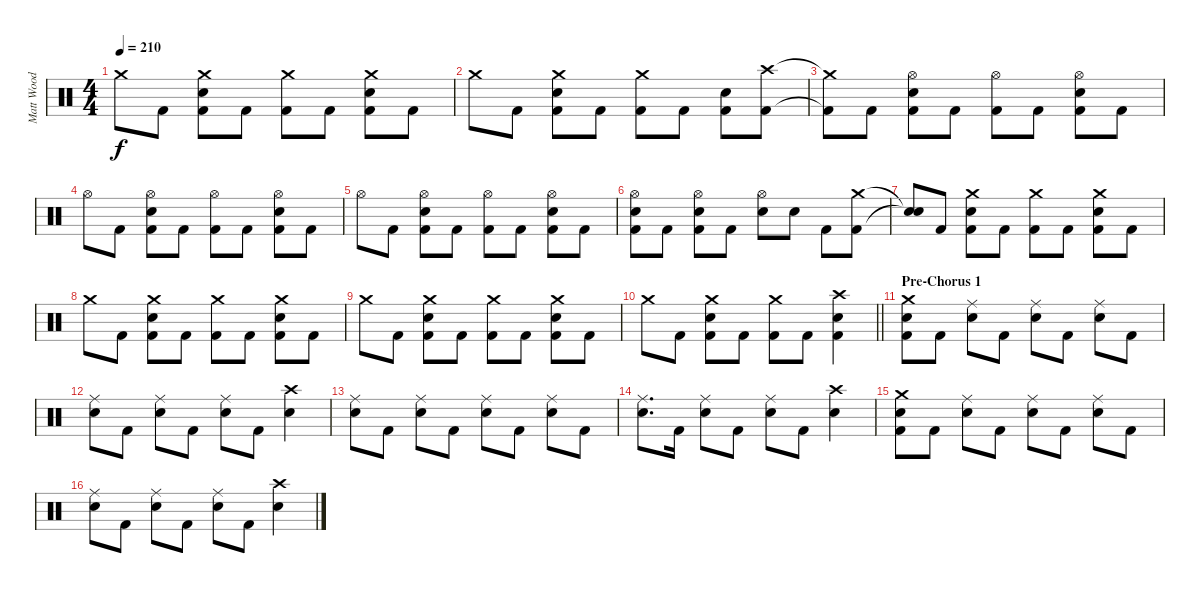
\track ("Matt Wood" "Matt Wood") {instrument percussion}
\staff {score}
\articulation defaults
\ts (4 4)
\tempo 210
\clef neutral
\ks c "Crash medium (hit)".8{dy f} "Kick (hit) 2".8
("Crash medium (hit)" "Snare (hit) 2" "Kick (hit) 2").8 "Kick (hit) 2".8 ("Crash medium (hit)" "Kick (hit) 2").8 "Kick (hit) 2".8 ("Crash medium (hit)" "Snare (hit) 2" "Kick (hit) 2").8 "Kick (hit) 2".8 |
"Crash medium (hit)".8 "Kick (hit) 2".8 ("Crash medium (hit)" "Snare (hit) 2" "Kick (hit) 2").8 "Kick (hit) 2".8 ("Crash medium (hit)" "Kick (hit) 2").8 "Kick (hit) 2".8 ("Snare (hit) 2" "Kick (hit) 2").8 ("Crash high (hit)" "Kick (hit) 2").8 |
("Crash medium (hit)"{t} "Kick (hit) 2"{t}).8 "Kick (hit) 2".8 ("Hi-Hat (open)" "Snare (hit) 2" "Kick (hit) 2").8 "Kick (hit) 2".8 ("Hi-Hat (open)" "Kick (hit) 2").8 "Kick (hit) 2".8 ("Hi-Hat (open)" "Snare (hit) 2" "Kick (hit) 2").8 "Kick (hit) 2".8 |
"Hi-Hat (open)".8 "Kick (hit) 2".8 ("Hi-Hat (open)" "Snare (hit) 2" "Kick (hit) 2").8 "Kick (hit) 2".8 ("Hi-Hat (open)" "Kick (hit) 2").8 "Kick (hit) 2".8 ("Hi-Hat (open)" "Snare (hit) 2" "Kick (hit) 2").8 "Kick (hit) 2".8 |
"Hi-Hat (open)".8 "Kick (hit) 2".8 ("Hi-Hat (open)" "Snare (hit) 2" "Kick (hit) 2").8 "Kick (hit) 2".8 ("Hi-Hat (open)" "Kick (hit) 2").8 "Kick (hit) 2".8 ("Hi-Hat (open)" "Snare (hit) 2" "Kick (hit) 2").8 "Kick (hit) 2".8 |
("Hi-Hat (open)" "Snare (hit) 2" "Kick (hit) 2").8 "Kick (hit) 2".8 ("Hi-Hat (open)" "Snare (hit) 2" "Kick (hit) 2").8 "Kick (hit) 2".8 ("Hi-Hat (open)" "Snare (hit) 2").8 "Snare (hit) 2".8 "Kick (hit) 2".8 ("Crash medium (hit)" "Kick (hit) 2").8 |
("Snare (hit)"{t} "Snare (hit)"{t}).8 "Kick (hit) 2".8 ("Crash medium (hit)" "Snare (hit) 2" "Kick (hit) 2").8 "Kick (hit) 2".8 ("Crash medium (hit)" "Kick (hit) 2").8 "Kick (hit) 2".8 ("Crash medium (hit)" "Snare (hit) 2" "Kick (hit) 2").8 "Kick (hit) 2".8 |
"Crash medium (hit)".8 "Kick (hit) 2".8 ("Crash medium (hit)" "Snare (hit) 2" "Kick (hit) 2").8 "Kick (hit) 2".8 ("Crash medium (hit)" "Kick (hit) 2").8 "Kick (hit) 2".8 ("Crash medium (hit)" "Snare (hit) 2" "Kick (hit) 2").8 "Kick (hit) 2".8 |
"Crash medium (hit)".8 "Kick (hit) 2".8 ("Crash medium (hit)" "Snare (hit) 2" "Kick (hit) 2").8 "Kick (hit) 2".8 ("Crash medium (hit)" "Kick (hit) 2").8 "Kick (hit) 2".8 ("Crash medium (hit)" "Snare (hit) 2" "Kick (hit) 2").8 "Kick (hit) 2".8 |
\barLineRight lightlight "Crash medium (hit)".8 "Kick (hit) 2".8
("Crash medium (hit)" "Snare (hit) 2" "Kick (hit) 2").8 "Kick (hit) 2".8 ("Crash medium (hit)" "Kick (hit) 2").8 "Kick (hit) 2".8 ("Crash high (hit)" "Snare (hit) 2" "Kick (hit) 2").4 |
\section ("" "Pre-Chorus 1")
("Crash medium (hit)" "Snare (hit) 2" "Kick (hit) 2").8 "Kick (hit) 2".8 ("Ride (middle)" "Snare (hit) 2").8 "Kick (hit) 2".8 ("Ride (middle)" "Snare (hit) 2").8 "Kick (hit) 2".8 ("Ride (middle)" "Snare (hit) 2").8 "Kick (hit) 2".8 |
("Ride (middle)" "Snare (hit) 2").8 "Kick (hit) 2".8 ("Ride (middle)" "Snare (hit) 2").8 "Kick (hit) 2".8 ("Ride (middle)" "Snare (hit) 2").8 "Kick (hit) 2".8 ("Crash high (hit)" "Snare (hit) 2").4 |
("Ride (middle)" "Snare (hit) 2").8 "Kick (hit) 2".8 ("Ride (middle)" "Snare (hit) 2").8 "Kick (hit) 2".8 ("Ride (middle)" "Snare (hit) 2").8 "Kick (hit) 2".8 ("Ride (middle)" "Snare (hit) 2").8 "Kick (hit) 2".8 |
("Ride (middle)" "Snare (hit) 2").8{d} "Kick (hit) 2".16 ("Ride (middle)" "Snare (hit) 2").8 "Kick (hit) 2".8 ("Ride (middle)" "Snare (hit) 2").8 "Kick (hit) 2".8 ("Crash high (hit)" "Snare (hit) 2").4 |
("Crash medium (hit)" "Snare (hit) 2" "Kick (hit) 2").8 "Kick (hit) 2".8 ("Ride (middle)" "Snare (hit) 2").8 "Kick (hit) 2".8 ("Ride (middle)" "Snare (hit) 2").8 "Kick (hit) 2".8 ("Ride (middle)" "Snare (hit) 2").8 "Kick (hit) 2".8 |
("Ride (middle)" "Snare (hit) 2").8 "Kick (hit) 2".8 ("Ride (middle)" "Snare (hit) 2").8 "Kick (hit) 2".8 ("Ride (middle)" "Snare (hit) 2").8 "Kick (hit) 2".8 ("Crash high (hit)" "Snare (hit) 2").4
